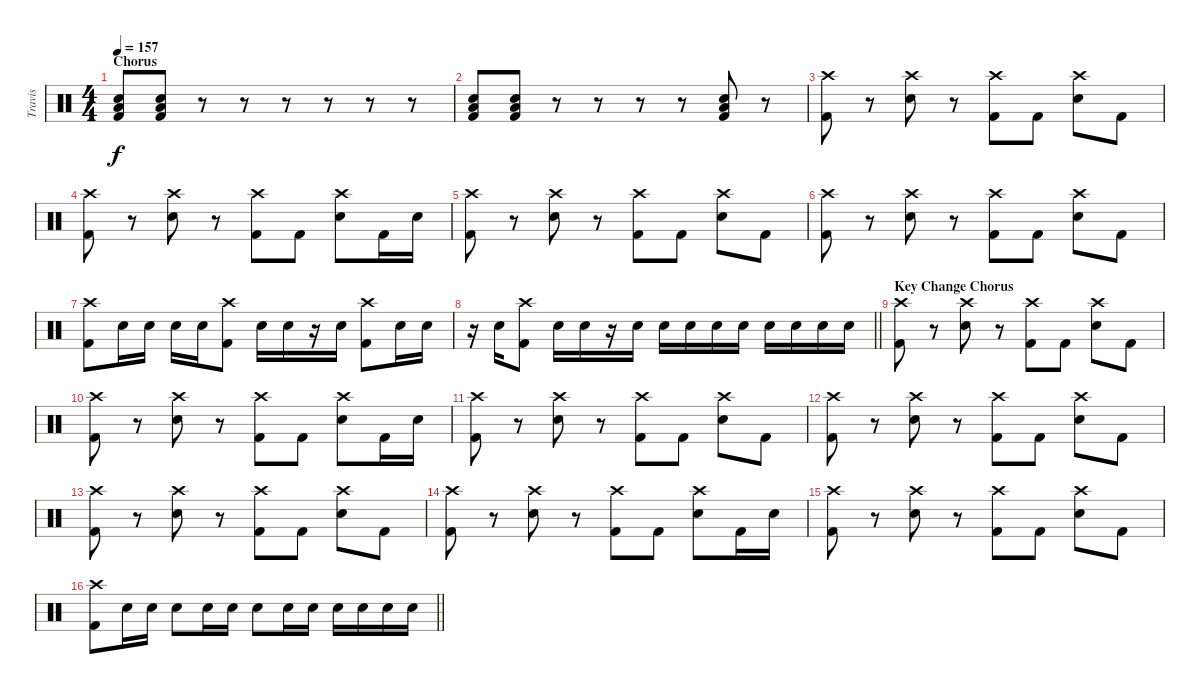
\track ("Travis" "Travis") {instrument percussion}
\staff {score}
\articulation defaults
\ts (4 4)
\section ("" "Chorus")
\tempo 157
\clef neutral
\ks c
("Low Floor Tom (hit)" "Electric Snare (hit)" "Kick (hit) 2").8{dy f} ("Low Floor Tom (hit)" "Electric Snare (hit)" "Kick (hit) 2").8 r.8 r.8 r.8 r.8 r.8 r.8 |
("Low Floor Tom (hit)" "Electric Snare (hit)" "Kick (hit) 2").8 ("Low Floor Tom (hit)" "Electric Snare (hit)" "Kick (hit) 2").8 r.8 r.8 r.8 r.8 ("Low Floor Tom (hit)" "Electric Snare (hit)" "Kick (hit) 2").8 r.8 |
("Crash high (hit)" "Kick (hit) 2").8 r.8 ("Crash high (hit)" "Electric Snare (hit)").8 r.8 ("Crash high (hit)" "Kick (hit) 2").8 "Kick (hit) 2".8 ("Crash high (hit)" "Electric Snare (hit)").8 "Kick (hit) 2".8 |
("Crash high (hit)" "Kick (hit) 2").8 r.8 ("Crash high (hit)" "Electric Snare (hit)").8 r.8 ("Crash high (hit)" "Kick (hit) 2").8 "Kick (hit) 2".8 ("Crash high (hit)" "Electric Snare (hit)").8 "Kick (hit) 2".16 "Electric Snare (hit)".16 |
("Crash high (hit)" "Kick (hit) 2").8 r.8 ("Crash high (hit)" "Electric Snare (hit)").8 r.8 ("Crash high (hit)" "Kick (hit) 2").8 "Kick (hit) 2".8 ("Crash high (hit)" "Electric Snare (hit)").8 "Kick (hit) 2".8 |
("Crash high (hit)" "Kick (hit) 2").8 r.8 ("Crash high (hit)" "Electric Snare (hit)").8 r.8 ("Crash high (hit)" "Kick (hit) 2").8 "Kick (hit) 2".8 ("Crash high (hit)" "Electric Snare (hit)").8 "Kick (hit) 2".8 |
("Crash high (hit)" "Kick (hit) 2").8 "Electric Snare (hit)".16 "Electric Snare (hit)".16 "Electric Snare (hit)".16 "Electric Snare (hit)".16 ("Crash high (hit)" "Kick (hit) 2").8 "Electric Snare (hit)".16 "Electric Snare (hit)".16 r.16 "Electric Snare (hit)".16 ("Crash high (hit)" "Kick (hit) 2").8 "Electric Snare (hit)".16 "Electric Snare (hit)".16 |
\barLineRight lightlight
r.16 "Electric Snare (hit)".16 ("Crash high (hit)" "Kick (hit) 2").8 "Electric Snare (hit)".16 "Electric Snare (hit)".16 r.16 "Electric Snare (hit)".16 "Electric Snare (hit)".16 "Electric Snare (hit)".16 "Electric Snare (hit)".16 "Electric Snare (hit)".16 "Electric Snare (hit)".16 "Electric Snare (hit)".16 "Electric Snare (hit)".16 "Electric Snare (hit)".16 |
\section ("" "Key Change Chorus")
("Crash high (hit)" "Kick (hit) 2").8 r.8 ("Crash high (hit)" "Electric Snare (hit)").8 r.8 ("Crash high (hit)" "Kick (hit) 2").8 "Kick (hit) 2".8 ("Crash high (hit)" "Electric Snare (hit)").8 "Kick (hit) 2".8 |
("Crash high (hit)" "Kick (hit) 2").8 r.8 ("Crash high (hit)" "Electric Snare (hit)").8 r.8 ("Crash high (hit)" "Kick (hit) 2").8 "Kick (hit) 2".8 ("Crash high (hit)" "Electric Snare (hit)").8 "Kick (hit) 2".16 "Electric Snare (hit)".16 |
("Crash high (hit)" "Kick (hit) 2").8 r.8 ("Crash high (hit)" "Electric Snare (hit)").8 r.8 ("Crash high (hit)" "Kick (hit) 2").8 "Kick (hit) 2".8 ("Crash high (hit)" "Electric Snare (hit)").8 "Kick (hit) 2".8 |
("Crash high (hit)" "Kick (hit) 2").8 r.8 ("Crash high (hit)" "Electric Snare (hit)").8 r.8 ("Crash high (hit)" "Kick (hit) 2").8 "Kick (hit) 2".8 ("Crash high (hit)" "Electric Snare (hit)").8 "Kick (hit) 2".8 |
("Crash high (hit)" "Kick (hit) 2").8 r.8 ("Crash high (hit)" "Electric Snare (hit)").8 r.8 ("Crash high (hit)" "Kick (hit) 2").8 "Kick (hit) 2".8 ("Crash high (hit)" "Electric Snare (hit)").8 "Kick (hit) 2".8 |
("Crash high (hit)" "Kick (hit) 2").8 r.8 ("Crash high (hit)" "Electric Snare (hit)").8 r.8 ("Crash high (hit)" "Kick (hit) 2").8 "Kick (hit) 2".8 ("Crash high (hit)" "Electric Snare (hit)").8 "Kick (hit) 2".16 "Electric Snare (hit)".16 |
("Crash high (hit)" "Kick (hit) 2").8 r.8 ("Crash high (hit)" "Electric Snare (hit)").8 r.8 ("Crash high (hit)" "Kick (hit) 2").8 "Kick (hit) 2".8 ("Crash high (hit)" "Electric Snare (hit)").8 "Kick (hit) 2".8 |
\barLineRight lightlight
("Crash high (hit)" "Kick (hit) 2").8 "Electric Snare (hit)".16 "Electric Snare (hit)".16 "Electric Snare (hit)".8 "Electric Snare (hit)".16 "Electric Snare (hit)".16 "Electric Snare (hit)".8 "Electric Snare (hit)".16 "Electric Snare (hit)".16 "Electric Snare (hit)".16 "Electric Snare (hit)".16 "Electric Snare (hit)".16 "Electric Snare (hit)".16
